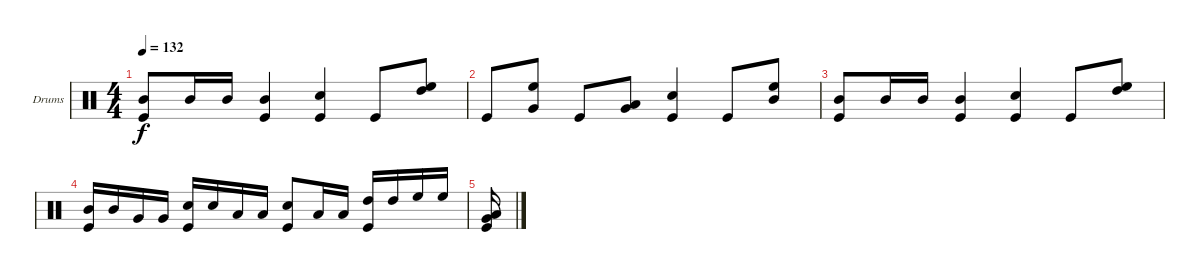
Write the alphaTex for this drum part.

\defaultSystemsLayout 4
\bracketExtendMode groupsimilarinstruments
\firstSystemTrackNameOrientation horizontal
\otherSystemsTrackNameOrientation horizontal
\track ("Drumkit" "Drums") {instrument percussion}
\staff {score}
\articulation defaults
\ts (4 4)
\tempo 132
\clef neutral
\scale
0.333333
\ks c
("Kick (hit)" "Mid Tom (hit)").8{dy f} "Mid Tom (hit)".16 "Mid Tom (hit)".16 ("Mid Tom (hit)" "Kick (hit)").4 ("Kick (hit)" "Snare (hit) 2").4 "Kick (hit)".8 ("High Floor Tom (hit)" "High Tom (hit)").8 |
\scale
0.333333 "Kick (hit)".8 ("Very Low Tom (hit)" "High Floor Tom (hit)").8 "Kick (hit)".8 ("Low Tom (hit)" "Very Low Tom (hit)").8 ("Kick (hit)" "Snare (hit) 2").4 "Kick (hit)".8 ("Mid Tom (hit)" "High Floor Tom (hit)").8 |
\scale
0.333333 ("Kick (hit)" "Mid Tom (hit)").8 "Mid Tom (hit)".16 "Mid Tom (hit)".16 ("Mid Tom (hit)" "Kick (hit)").4 ("Kick (hit)" "Snare (hit) 2").4 "Kick (hit)".8 ("High Floor Tom (hit)" "High Tom (hit)").8 |
\scale
0.333333 ("Kick (hit)" "Mid Tom (hit)").16 "Mid Tom (hit)".16 "Very Low Tom (hit)".16 "Very Low Tom (hit)".16 ("Kick (hit)" "Snare (hit) 2").16 "Snare (hit) 2".16 "Low Tom (hit)".16 "Low Tom (hit)".16 ("Kick (hit)" "Snare (hit) 2").8 "Low Tom (hit)".16 "Low Tom (hit)".16 ("High Tom (hit)" "Kick (hit)").16 "High Tom (hit)".16 "High Floor Tom (hit)".16 "High Floor Tom (hit)".16 |
\scale
0.333333 ("Kick (hit)" "Low Tom (hit)" "Very Low Tom (hit)").16 |
\scale
0.333333 |
\scale
0.333333 |
\scale
0.333333 |
\scale
0.333333 |
\scale
0.333333 |
\scale
0.333333 |
\scale
0.333333 |
\scale
0.333333 |
\scale
0.333333 |
\scale
0.333333 |
\scale
0.333333
